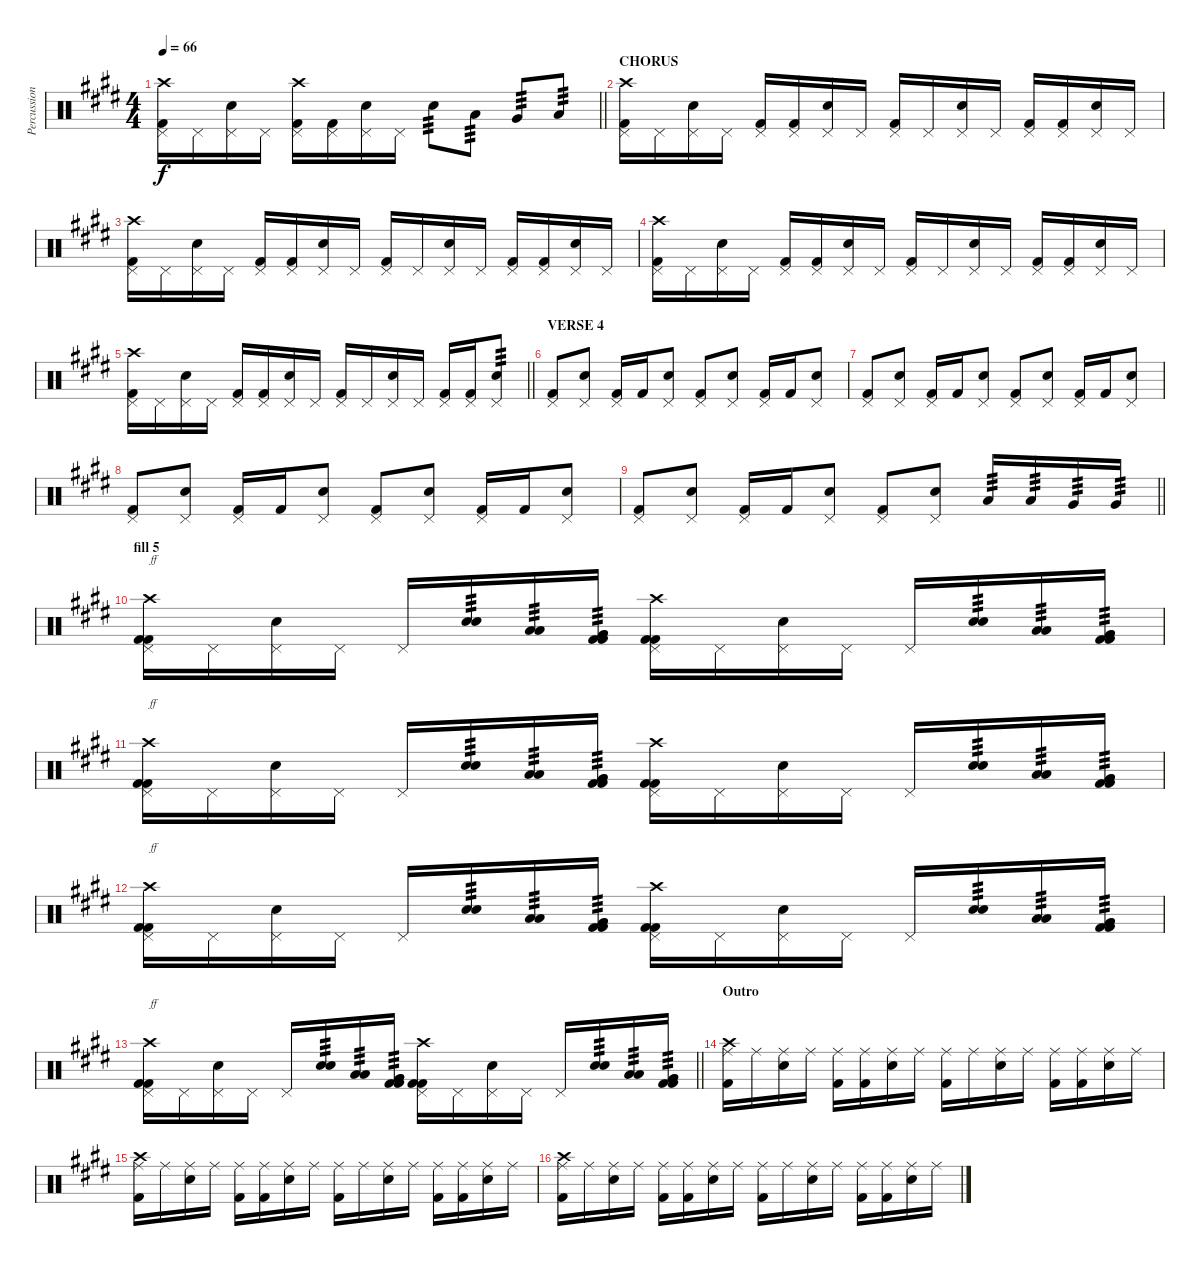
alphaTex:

\track ("Percussion" "Percussion") {instrument percussion}
\staff {score}
\articulation defaults
\ts (4 4)
\tempo 66
\clef neutral
\barLineRight lightlight
\ks e
("Crash high (hit)" "Pedal Hi-Hat (hit)" "Kick (hit) 2").16{dy f} "Pedal Hi-Hat (hit)".16 ("Pedal Hi-Hat (hit)" "Electric Snare (hit)").16 "Pedal Hi-Hat (hit)".16 ("Crash high (hit)" "Pedal Hi-Hat (hit)" "Kick (hit) 2").16 ("Pedal Hi-Hat (hit)" "Kick (hit) 2").16 ("Pedal Hi-Hat (hit)" "Electric Snare (hit)").16 "Pedal Hi-Hat (hit)".16 "Electric Snare (hit)".8{tp 3} "Low Tom (hit)".8{tp 3} "Very Low Tom (hit)".8{tp 3} "Low Floor Tom (hit)".8{tp 3} |
\section ("" "CHORUS")
("Crash high (hit)" "Pedal Hi-Hat (hit)" "Kick (hit) 2").16 "Pedal Hi-Hat (hit)".16 ("Pedal Hi-Hat (hit)" "Electric Snare (hit)").16 "Pedal Hi-Hat (hit)".16 ("Pedal Hi-Hat (hit)" "Kick (hit) 2").16 ("Pedal Hi-Hat (hit)" "Kick (hit) 2").16 ("Pedal Hi-Hat (hit)" "Electric Snare (hit)").16 "Pedal Hi-Hat (hit)".16 ("Pedal Hi-Hat (hit)" "Kick (hit) 2").16 "Pedal Hi-Hat (hit)".16 ("Pedal Hi-Hat (hit)" "Electric Snare (hit)").16 "Pedal Hi-Hat (hit)".16 ("Pedal Hi-Hat (hit)" "Kick (hit) 2").16 ("Pedal Hi-Hat (hit)" "Kick (hit) 2").16 ("Pedal Hi-Hat (hit)" "Electric Snare (hit)").16 "Pedal Hi-Hat (hit)".16 |
("Crash high (hit)" "Pedal Hi-Hat (hit)" "Kick (hit) 2").16 "Pedal Hi-Hat (hit)".16 ("Pedal Hi-Hat (hit)" "Electric Snare (hit)").16 "Pedal Hi-Hat (hit)".16 ("Pedal Hi-Hat (hit)" "Kick (hit) 2").16 ("Pedal Hi-Hat (hit)" "Kick (hit) 2").16 ("Pedal Hi-Hat (hit)" "Electric Snare (hit)").16 "Pedal Hi-Hat (hit)".16 ("Pedal Hi-Hat (hit)" "Kick (hit) 2").16 "Pedal Hi-Hat (hit)".16 ("Pedal Hi-Hat (hit)" "Electric Snare (hit)").16 "Pedal Hi-Hat (hit)".16 ("Pedal Hi-Hat (hit)" "Kick (hit) 2").16 ("Pedal Hi-Hat (hit)" "Kick (hit) 2").16 ("Pedal Hi-Hat (hit)" "Electric Snare (hit)").16 "Pedal Hi-Hat (hit)".16 |
("Crash high (hit)" "Pedal Hi-Hat (hit)" "Kick (hit) 2").16 "Pedal Hi-Hat (hit)".16 ("Pedal Hi-Hat (hit)" "Electric Snare (hit)").16 "Pedal Hi-Hat (hit)".16 ("Pedal Hi-Hat (hit)" "Kick (hit) 2").16 ("Pedal Hi-Hat (hit)" "Kick (hit) 2").16 ("Pedal Hi-Hat (hit)" "Electric Snare (hit)").16 "Pedal Hi-Hat (hit)".16 ("Pedal Hi-Hat (hit)" "Kick (hit) 2").16 "Pedal Hi-Hat (hit)".16 ("Pedal Hi-Hat (hit)" "Electric Snare (hit)").16 "Pedal Hi-Hat (hit)".16 ("Pedal Hi-Hat (hit)" "Kick (hit) 2").16 ("Pedal Hi-Hat (hit)" "Kick (hit) 2").16 ("Pedal Hi-Hat (hit)" "Electric Snare (hit)").16 "Pedal Hi-Hat (hit)".16 |
\barLineRight lightlight
("Crash high (hit)" "Pedal Hi-Hat (hit)" "Kick (hit) 2").16 "Pedal Hi-Hat (hit)".16 ("Pedal Hi-Hat (hit)" "Electric Snare (hit)").16 "Pedal Hi-Hat (hit)".16 ("Pedal Hi-Hat (hit)" "Kick (hit) 2").16 ("Pedal Hi-Hat (hit)" "Kick (hit) 2").16 ("Pedal Hi-Hat (hit)" "Electric Snare (hit)").16 "Pedal Hi-Hat (hit)".16 ("Pedal Hi-Hat (hit)" "Kick (hit) 2").16 "Pedal Hi-Hat (hit)".16 ("Pedal Hi-Hat (hit)" "Electric Snare (hit)").16 "Pedal Hi-Hat (hit)".16 ("Pedal Hi-Hat (hit)" "Kick (hit) 2").16 ("Pedal Hi-Hat (hit)" "Kick (hit) 2").16 ("Pedal Hi-Hat (hit)" "Electric Snare (hit)").8{tp 3} |
\section ("" "VERSE 4")
("Pedal Hi-Hat (hit)" "Kick (hit) 2").8 ("Pedal Hi-Hat (hit)" "Electric Snare (hit)").8 ("Pedal Hi-Hat (hit)" "Kick (hit) 2").16 "Kick (hit) 2".16 ("Pedal Hi-Hat (hit)" "Electric Snare (hit)").8 ("Pedal Hi-Hat (hit)" "Kick (hit) 2").8 ("Pedal Hi-Hat (hit)" "Electric Snare (hit)").8 ("Pedal Hi-Hat (hit)" "Kick (hit) 2").16 "Kick (hit) 2".16 ("Pedal Hi-Hat (hit)" "Electric Snare (hit)").8 |
("Pedal Hi-Hat (hit)" "Kick (hit) 2").8 ("Pedal Hi-Hat (hit)" "Electric Snare (hit)").8 ("Pedal Hi-Hat (hit)" "Kick (hit) 2").16 "Kick (hit) 2".16 ("Pedal Hi-Hat (hit)" "Electric Snare (hit)").8 ("Pedal Hi-Hat (hit)" "Kick (hit) 2").8 ("Pedal Hi-Hat (hit)" "Electric Snare (hit)").8 ("Pedal Hi-Hat (hit)" "Kick (hit) 2").16 "Kick (hit) 2".16 ("Pedal Hi-Hat (hit)" "Electric Snare (hit)").8 |
("Pedal Hi-Hat (hit)" "Kick (hit) 2").8 ("Pedal Hi-Hat (hit)" "Electric Snare (hit)").8 ("Pedal Hi-Hat (hit)" "Kick (hit) 2").16 "Kick (hit) 2".16 ("Pedal Hi-Hat (hit)" "Electric Snare (hit)").8 ("Pedal Hi-Hat (hit)" "Kick (hit) 2").8 ("Pedal Hi-Hat (hit)" "Electric Snare (hit)").8 ("Pedal Hi-Hat (hit)" "Kick (hit) 2").16 "Kick (hit) 2".16 ("Pedal Hi-Hat (hit)" "Electric Snare (hit)").8 |
\barLineRight lightlight
("Pedal Hi-Hat (hit)" "Kick (hit) 2").8 ("Pedal Hi-Hat (hit)" "Electric Snare (hit)").8 ("Pedal Hi-Hat (hit)" "Kick (hit) 2").16 "Kick (hit) 2".16 ("Pedal Hi-Hat (hit)" "Electric Snare (hit)").8 ("Pedal Hi-Hat (hit)" "Kick (hit) 2").8 ("Pedal Hi-Hat (hit)" "Electric Snare (hit)").8 "Low Tom (hit)".16{tp 3} "Low Tom (hit)".16{tp 3} "Very Low Tom (hit)".16{tp 3} "Very Low Tom (hit)".16{tp 3} |
\section ("" "fill 5")
("Crash high (hit)" "Pedal Hi-Hat (hit)" "Kick (hit) 2" "Kick (hit) 2").16{txt "ff" volume 16} "Pedal Hi-Hat (hit)".16 ("Pedal Hi-Hat (hit)" "Electric Snare (hit)").16 "Pedal Hi-Hat (hit)".16 "Pedal Hi-Hat (hit)".16 ("Electric Snare (hit)" "Electric Snare (hit)").16{tp 3} ("Low Tom (hit)" "Low Tom (hit)").16{tp 3} ("Very Low Tom (hit)" "Very Low Tom (hit)" "Kick (hit) 2" "Kick (hit) 2").16{tp 3} ("Crash high (hit)" "Pedal Hi-Hat (hit)" "Kick (hit) 2" "Kick (hit) 2").16 "Pedal Hi-Hat (hit)".16 ("Pedal Hi-Hat (hit)" "Electric Snare (hit)").16 "Pedal Hi-Hat (hit)".16 "Pedal Hi-Hat (hit)".16 ("Electric Snare (hit)" "Electric Snare (hit)").16{tp 3} ("Low Tom (hit)" "Low Tom (hit)").16{tp 3} ("Very Low Tom (hit)" "Very Low Tom (hit)" "Kick (hit) 2" "Kick (hit) 2").16{tp 3} |
("Crash high (hit)" "Pedal Hi-Hat (hit)" "Kick (hit) 2" "Kick (hit) 2").16{txt "ff"} "Pedal Hi-Hat (hit)".16 ("Pedal Hi-Hat (hit)" "Electric Snare (hit)").16 "Pedal Hi-Hat (hit)".16 "Pedal Hi-Hat (hit)".16 ("Electric Snare (hit)" "Electric Snare (hit)").16{tp 3} ("Low Tom (hit)" "Low Tom (hit)").16{tp 3} ("Very Low Tom (hit)" "Very Low Tom (hit)" "Kick (hit) 2" "Kick (hit) 2").16{tp 3} ("Crash high (hit)" "Pedal Hi-Hat (hit)" "Kick (hit) 2" "Kick (hit) 2").16 "Pedal Hi-Hat (hit)".16 ("Pedal Hi-Hat (hit)" "Electric Snare (hit)").16 "Pedal Hi-Hat (hit)".16 "Pedal Hi-Hat (hit)".16 ("Electric Snare (hit)" "Electric Snare (hit)").16{tp 3} ("Low Tom (hit)" "Low Tom (hit)").16{tp 3} ("Very Low Tom (hit)" "Very Low Tom (hit)" "Kick (hit) 2" "Kick (hit) 2").16{tp 3} |
("Crash high (hit)" "Pedal Hi-Hat (hit)" "Kick (hit) 2" "Kick (hit) 2").16{txt "ff"} "Pedal Hi-Hat (hit)".16 ("Pedal Hi-Hat (hit)" "Electric Snare (hit)").16 "Pedal Hi-Hat (hit)".16 "Pedal Hi-Hat (hit)".16 ("Electric Snare (hit)" "Electric Snare (hit)").16{tp 3} ("Low Tom (hit)" "Low Tom (hit)").16{tp 3} ("Very Low Tom (hit)" "Very Low Tom (hit)" "Kick (hit) 2" "Kick (hit) 2").16{tp 3} ("Crash high (hit)" "Pedal Hi-Hat (hit)" "Kick (hit) 2" "Kick (hit) 2").16 "Pedal Hi-Hat (hit)".16 ("Pedal Hi-Hat (hit)" "Electric Snare (hit)").16 "Pedal Hi-Hat (hit)".16 "Pedal Hi-Hat (hit)".16 ("Electric Snare (hit)" "Electric Snare (hit)").16{tp 3} ("Low Tom (hit)" "Low Tom (hit)").16{tp 3} ("Very Low Tom (hit)" "Very Low Tom (hit)" "Kick (hit) 2" "Kick (hit) 2").16{tp 3} |
\barLineRight lightlight
("Crash high (hit)" "Pedal Hi-Hat (hit)" "Kick (hit) 2" "Kick (hit) 2").16{txt "ff"} "Pedal Hi-Hat (hit)".16 ("Pedal Hi-Hat (hit)" "Electric Snare (hit)").16 "Pedal Hi-Hat (hit)".16 "Pedal Hi-Hat (hit)".16 ("Electric Snare (hit)" "Electric Snare (hit)").16{tp 3} ("Low Tom (hit)" "Low Tom (hit)").16{tp 3} ("Very Low Tom (hit)" "Very Low Tom (hit)" "Kick (hit) 2" "Kick (hit) 2").16{tp 3} ("Crash high (hit)" "Pedal Hi-Hat (hit)" "Kick (hit) 2" "Kick (hit) 2").16 "Pedal Hi-Hat (hit)".16 ("Pedal Hi-Hat (hit)" "Electric Snare (hit)").16 "Pedal Hi-Hat (hit)".16 "Pedal Hi-Hat (hit)".16 ("Electric Snare (hit)" "Electric Snare (hit)").16{tp 3} ("Low Tom (hit)" "Low Tom (hit)").16{tp 3} ("Very Low Tom (hit)" "Very Low Tom (hit)" "Kick (hit) 2" "Kick (hit) 2").16{tp 3} |
\section ("" "Outro")
("Crash high (hit)" "Ride (middle)" "Kick (hit) 2").16{volume 12} "Ride (middle)".16 ("Ride (middle)" "Electric Snare (hit)").16 "Ride (middle)".16 ("Ride (middle)" "Kick (hit) 2").16 ("Ride (middle)" "Kick (hit) 2").16 ("Ride (middle)" "Electric Snare (hit)").16 "Ride (middle)".16 ("Ride (middle)" "Kick (hit) 2").16 "Ride (middle)".16 ("Ride (middle)" "Electric Snare (hit)").16 "Ride (middle)".16 ("Ride (middle)" "Kick (hit) 2").16 ("Ride (middle)" "Kick (hit) 2").16 ("Ride (middle)" "Electric Snare (hit)").16 "Ride (middle)".16 |
("Crash high (hit)" "Ride (middle)" "Kick (hit) 2").16 "Ride (middle)".16 ("Ride (middle)" "Electric Snare (hit)").16 "Ride (middle)".16 ("Ride (middle)" "Kick (hit) 2").16 ("Ride (middle)" "Kick (hit) 2").16 ("Ride (middle)" "Electric Snare (hit)").16 "Ride (middle)".16 ("Ride (middle)" "Kick (hit) 2").16 "Ride (middle)".16 ("Ride (middle)" "Electric Snare (hit)").16 "Ride (middle)".16 ("Ride (middle)" "Kick (hit) 2").16 ("Ride (middle)" "Kick (hit) 2").16 ("Ride (middle)" "Electric Snare (hit)").16 "Ride (middle)".16 |
("Crash high (hit)" "Ride (middle)" "Kick (hit) 2").16 "Ride (middle)".16 ("Ride (middle)" "Electric Snare (hit)").16 "Ride (middle)".16 ("Ride (middle)" "Kick (hit) 2").16 ("Ride (middle)" "Kick (hit) 2").16 ("Ride (middle)" "Electric Snare (hit)").16 "Ride (middle)".16 ("Ride (middle)" "Kick (hit) 2").16 "Ride (middle)".16 ("Ride (middle)" "Electric Snare (hit)").16 "Ride (middle)".16 ("Ride (middle)" "Kick (hit) 2").16 ("Ride (middle)" "Kick (hit) 2").16 ("Ride (middle)" "Electric Snare (hit)").16 "Ride (middle)".16
